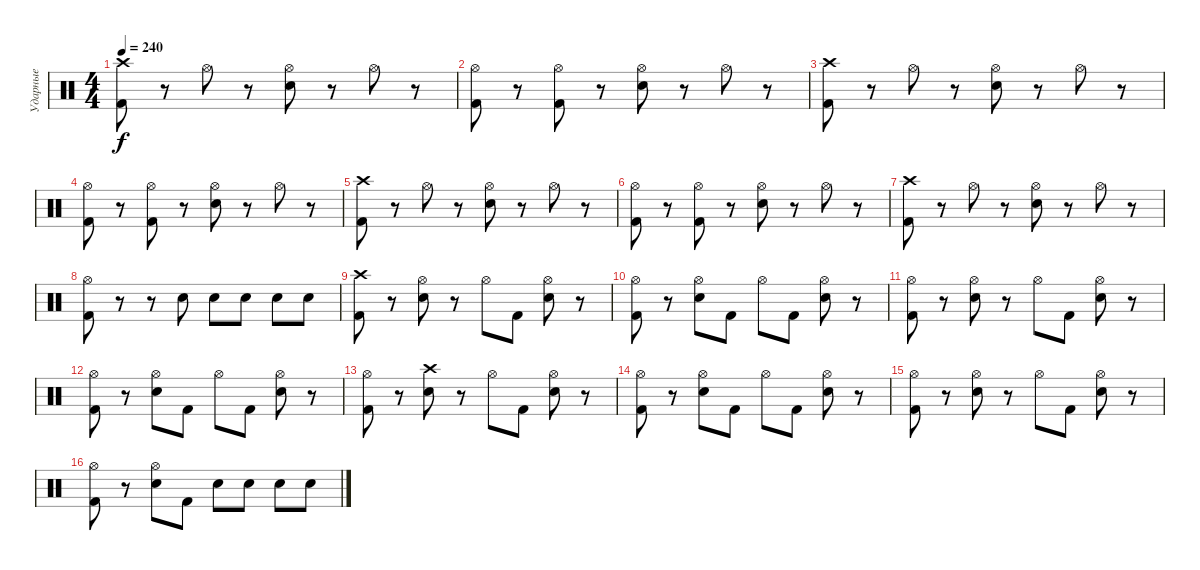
\track ("Ударные" "Ударные") {instrument percussion}
\staff {score}
\articulation defaults
\ts (4 4)
\tempo 240
\clef neutral
\ks c
("Crash high (hit)" "Kick (hit) 2").8{dy f} r.8 "Hi-Hat (open)".8 r.8 ("Hi-Hat (open)" "Electric Snare (hit)").8 r.8 "Hi-Hat (open)".8 r.8 |
("Hi-Hat (open)" "Kick (hit) 2").8 r.8 ("Hi-Hat (open)" "Kick (hit) 2").8 r.8 ("Hi-Hat (open)" "Electric Snare (hit)").8 r.8 "Hi-Hat (open)".8 r.8 |
("Crash high (hit)" "Kick (hit) 2").8 r.8 "Hi-Hat (open)".8 r.8 ("Hi-Hat (open)" "Electric Snare (hit)").8 r.8 "Hi-Hat (open)".8 r.8 |
("Hi-Hat (open)" "Kick (hit) 2").8 r.8 ("Hi-Hat (open)" "Kick (hit) 2").8 r.8 ("Hi-Hat (open)" "Electric Snare (hit)").8 r.8 "Hi-Hat (open)".8 r.8 |
("Crash high (hit)" "Kick (hit) 2").8 r.8 "Hi-Hat (open)".8 r.8 ("Hi-Hat (open)" "Electric Snare (hit)").8 r.8 "Hi-Hat (open)".8 r.8 |
("Hi-Hat (open)" "Kick (hit) 2").8 r.8 ("Hi-Hat (open)" "Kick (hit) 2").8 r.8 ("Hi-Hat (open)" "Electric Snare (hit)").8 r.8 "Hi-Hat (open)".8 r.8 |
("Crash high (hit)" "Kick (hit) 2").8 r.8 "Hi-Hat (open)".8 r.8 ("Hi-Hat (open)" "Electric Snare (hit)").8 r.8 "Hi-Hat (open)".8 r.8 |
("Hi-Hat (open)" "Kick (hit) 2").8 r.8 r.8 "Electric Snare (hit)".8 "Electric Snare (hit)".8 "Electric Snare (hit)".8 "Electric Snare (hit)".8 "Electric Snare (hit)".8 |
("Crash high (hit)" "Kick (hit) 2").8 r.8 ("Hi-Hat (open)" "Electric Snare (hit)").8 r.8 "Hi-Hat (open)".8 "Kick (hit) 2".8 ("Hi-Hat (open)" "Electric Snare (hit)").8 r.8 |
("Hi-Hat (open)" "Kick (hit) 2").8 r.8 ("Hi-Hat (open)" "Electric Snare (hit)").8 "Kick (hit) 2".8 "Hi-Hat (open)".8 "Kick (hit) 2".8 ("Hi-Hat (open)" "Electric Snare (hit)").8 r.8 |
("Hi-Hat (open)" "Kick (hit) 2").8 r.8 ("Hi-Hat (open)" "Electric Snare (hit)").8 r.8 "Hi-Hat (open)".8 "Kick (hit) 2".8 ("Hi-Hat (open)" "Electric Snare (hit)").8 r.8 |
("Hi-Hat (open)" "Kick (hit) 2").8 r.8 ("Hi-Hat (open)" "Electric Snare (hit)").8 "Kick (hit) 2".8 "Hi-Hat (open)".8 "Kick (hit) 2".8 ("Hi-Hat (open)" "Electric Snare (hit)").8 r.8 |
("Hi-Hat (open)" "Kick (hit) 2").8 r.8 ("Crash high (hit)" "Electric Snare (hit)").8 r.8 "Hi-Hat (open)".8 "Kick (hit) 2".8 ("Hi-Hat (open)" "Electric Snare (hit)").8 r.8 |
("Hi-Hat (open)" "Kick (hit) 2").8 r.8 ("Hi-Hat (open)" "Electric Snare (hit)").8 "Kick (hit) 2".8 "Hi-Hat (open)".8 "Kick (hit) 2".8 ("Hi-Hat (open)" "Electric Snare (hit)").8 r.8 |
("Hi-Hat (open)" "Kick (hit) 2").8 r.8 ("Hi-Hat (open)" "Electric Snare (hit)").8 r.8 "Hi-Hat (open)".8 "Kick (hit) 2".8 ("Hi-Hat (open)" "Electric Snare (hit)").8 r.8 |
("Hi-Hat (open)" "Kick (hit) 2").8 r.8 ("Hi-Hat (open)" "Electric Snare (hit)").8 "Kick (hit) 2".8 "Electric Snare (hit)".8 "Electric Snare (hit)".8 "Electric Snare (hit)".8 "Electric Snare (hit)".8
